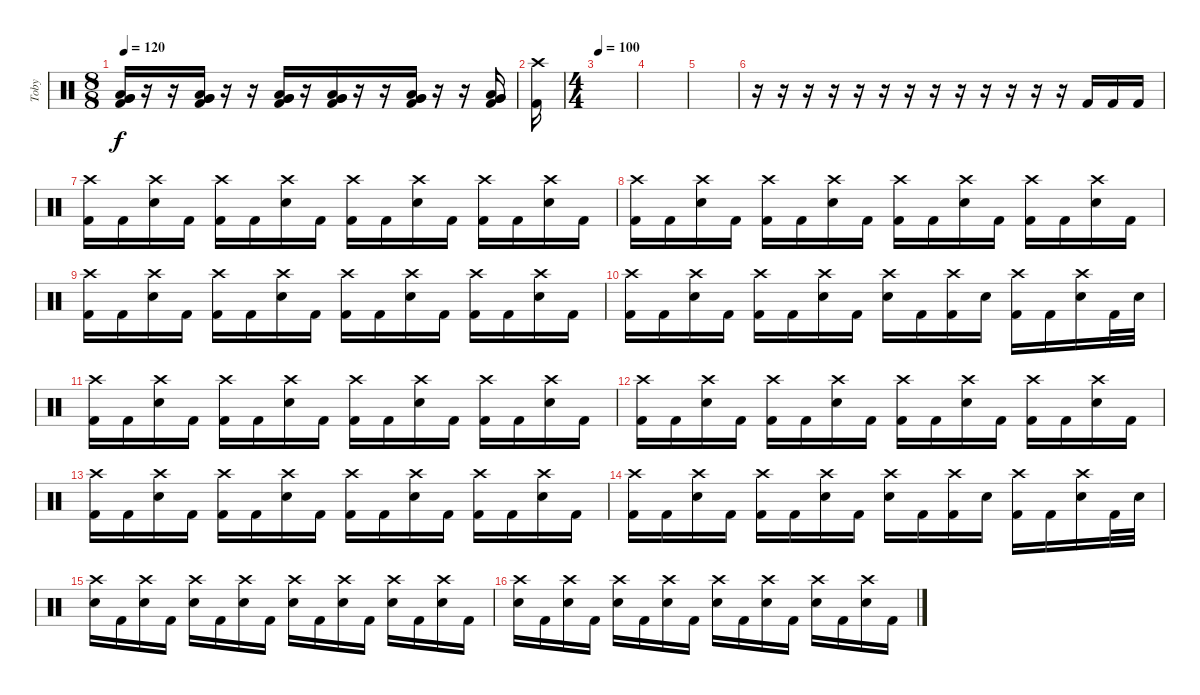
\track ("Toby" "Toby") {instrument percussion}
\staff {score}
\articulation defaults
\ts (8 8)
\tempo 120
\clef neutral
\ks c
("Low Tom (hit)" "Very Low Tom (hit)" "Very Low Tom (hit)" "Kick (hit) 2").16{dy f} r.16 r.16 ("Low Tom (hit)" "Very Low Tom (hit)" "Very Low Tom (hit)" "Kick (hit) 2").16 r.16 r.16 ("Low Tom (hit)" "Very Low Tom (hit)" "Very Low Tom (hit)" "Kick (hit) 2").16 r.16 ("Low Tom (hit)" "Very Low Tom (hit)" "Very Low Tom (hit)" "Kick (hit) 2").16 r.16 r.16 ("Low Tom (hit)" "Very Low Tom (hit)" "Very Low Tom (hit)" "Kick (hit) 2").16 r.16 r.16 ("Low Tom (hit)" "Very Low Tom (hit)" "Very Low Tom (hit)" "Kick (hit) 2").16 |
("Crash high (hit)" "Kick (hit) 2").16 |
\ts (4 4)
\tempo 100
|
|
|
r.16 r.16 r.16 r.16 r.16 r.16 r.16 r.16 r.16 r.16 r.16 r.16 r.16 "Kick (hit) 2".16 "Kick (hit) 2".16 "Kick (hit) 2".16 |
("Crash high (hit)" "Kick (hit) 2").16 "Kick (hit) 2".16 ("Crash high (hit)" "Electric Snare (hit)").16 "Kick (hit) 2".16 ("Crash high (hit)" "Kick (hit) 2").16 "Kick (hit) 2".16 ("Crash high (hit)" "Electric Snare (hit)").16 "Kick (hit) 2".16 ("Crash high (hit)" "Kick (hit) 2").16 "Kick (hit) 2".16 ("Crash high (hit)" "Electric Snare (hit)").16 "Kick (hit) 2".16 ("Crash high (hit)" "Kick (hit) 2").16 "Kick (hit) 2".16 ("Crash high (hit)" "Electric Snare (hit)").16 "Kick (hit) 2".16 |
("Crash high (hit)" "Kick (hit) 2").16 "Kick (hit) 2".16 ("Crash high (hit)" "Electric Snare (hit)").16 "Kick (hit) 2".16 ("Crash high (hit)" "Kick (hit) 2").16 "Kick (hit) 2".16 ("Crash high (hit)" "Electric Snare (hit)").16 "Kick (hit) 2".16 ("Crash high (hit)" "Kick (hit) 2").16 "Kick (hit) 2".16 ("Crash high (hit)" "Electric Snare (hit)").16 "Kick (hit) 2".16 ("Crash high (hit)" "Kick (hit) 2").16 "Kick (hit) 2".16 ("Crash high (hit)" "Electric Snare (hit)").16 "Kick (hit) 2".16 |
("Crash high (hit)" "Kick (hit) 2").16 "Kick (hit) 2".16 ("Crash high (hit)" "Electric Snare (hit)").16 "Kick (hit) 2".16 ("Crash high (hit)" "Kick (hit) 2").16 "Kick (hit) 2".16 ("Crash high (hit)" "Electric Snare (hit)").16 "Kick (hit) 2".16 ("Crash high (hit)" "Kick (hit) 2").16 "Kick (hit) 2".16 ("Crash high (hit)" "Electric Snare (hit)").16 "Kick (hit) 2".16 ("Crash high (hit)" "Kick (hit) 2").16 "Kick (hit) 2".16 ("Crash high (hit)" "Electric Snare (hit)").16 "Kick (hit) 2".16 |
("Crash high (hit)" "Kick (hit) 2").16 "Kick (hit) 2".16 ("Crash high (hit)" "Electric Snare (hit)").16 "Kick (hit) 2".16 ("Crash high (hit)" "Kick (hit) 2").16 "Kick (hit) 2".16 ("Crash high (hit)" "Electric Snare (hit)").16 "Kick (hit) 2".16 ("Crash high (hit)" "Electric Snare (hit)").16 "Kick (hit) 2".16 ("Crash high (hit)" "Kick (hit) 2").16 "Electric Snare (hit)".16 ("Crash high (hit)" "Kick (hit) 2").16 "Kick (hit) 2".16 ("Crash high (hit)" "Electric Snare (hit)").16 "Kick (hit) 2".32 "Electric Snare (hit)".32 |
("Crash high (hit)" "Kick (hit) 2").16 "Kick (hit) 2".16 ("Crash high (hit)" "Electric Snare (hit)").16 "Kick (hit) 2".16 ("Crash high (hit)" "Kick (hit) 2").16 "Kick (hit) 2".16 ("Crash high (hit)" "Electric Snare (hit)").16 "Kick (hit) 2".16 ("Crash high (hit)" "Kick (hit) 2").16 "Kick (hit) 2".16 ("Crash high (hit)" "Electric Snare (hit)").16 "Kick (hit) 2".16 ("Crash high (hit)" "Kick (hit) 2").16 "Kick (hit) 2".16 ("Crash high (hit)" "Electric Snare (hit)").16 "Kick (hit) 2".16 |
("Crash high (hit)" "Kick (hit) 2").16 "Kick (hit) 2".16 ("Crash high (hit)" "Electric Snare (hit)").16 "Kick (hit) 2".16 ("Crash high (hit)" "Kick (hit) 2").16 "Kick (hit) 2".16 ("Crash high (hit)" "Electric Snare (hit)").16 "Kick (hit) 2".16 ("Crash high (hit)" "Kick (hit) 2").16 "Kick (hit) 2".16 ("Crash high (hit)" "Electric Snare (hit)").16 "Kick (hit) 2".16 ("Crash high (hit)" "Kick (hit) 2").16 "Kick (hit) 2".16 ("Crash high (hit)" "Electric Snare (hit)").16 "Kick (hit) 2".16 |
("Crash high (hit)" "Kick (hit) 2").16 "Kick (hit) 2".16 ("Crash high (hit)" "Electric Snare (hit)").16 "Kick (hit) 2".16 ("Crash high (hit)" "Kick (hit) 2").16 "Kick (hit) 2".16 ("Crash high (hit)" "Electric Snare (hit)").16 "Kick (hit) 2".16 ("Crash high (hit)" "Kick (hit) 2").16 "Kick (hit) 2".16 ("Crash high (hit)" "Electric Snare (hit)").16 "Kick (hit) 2".16 ("Crash high (hit)" "Kick (hit) 2").16 "Kick (hit) 2".16 ("Crash high (hit)" "Electric Snare (hit)").16 "Kick (hit) 2".16 |
("Crash high (hit)" "Kick (hit) 2").16 "Kick (hit) 2".16 ("Crash high (hit)" "Electric Snare (hit)").16 "Kick (hit) 2".16 ("Crash high (hit)" "Kick (hit) 2").16 "Kick (hit) 2".16 ("Crash high (hit)" "Electric Snare (hit)").16 "Kick (hit) 2".16 ("Crash high (hit)" "Electric Snare (hit)").16 "Kick (hit) 2".16 ("Crash high (hit)" "Kick (hit) 2").16 "Electric Snare (hit)".16 ("Crash high (hit)" "Kick (hit) 2").16 "Kick (hit) 2".16 ("Crash high (hit)" "Electric Snare (hit)").16 "Kick (hit) 2".32 "Electric Snare (hit)".32 |
("Crash high (hit)" "Electric Snare (hit)").16 "Kick (hit) 2".16 ("Crash high (hit)" "Electric Snare (hit)").16 "Kick (hit) 2".16 ("Crash high (hit)" "Electric Snare (hit)").16 "Kick (hit) 2".16 ("Crash high (hit)" "Electric Snare (hit)").16 "Kick (hit) 2".16 ("Crash high (hit)" "Electric Snare (hit)").16 "Kick (hit) 2".16 ("Crash high (hit)" "Electric Snare (hit)").16 "Kick (hit) 2".16 ("Crash high (hit)" "Electric Snare (hit)").16 "Kick (hit) 2".16 ("Crash high (hit)" "Electric Snare (hit)").16 "Kick (hit) 2".16 |
("Crash high (hit)" "Electric Snare (hit)").16 "Kick (hit) 2".16 ("Crash high (hit)" "Electric Snare (hit)").16 "Kick (hit) 2".16 ("Crash high (hit)" "Electric Snare (hit)").16 "Kick (hit) 2".16 ("Crash high (hit)" "Electric Snare (hit)").16 "Kick (hit) 2".16 ("Crash high (hit)" "Electric Snare (hit)").16 "Kick (hit) 2".16 ("Crash high (hit)" "Electric Snare (hit)").16 "Kick (hit) 2".16 ("Crash high (hit)" "Electric Snare (hit)").16 "Kick (hit) 2".16 ("Crash high (hit)" "Electric Snare (hit)").16 "Kick (hit) 2".16
